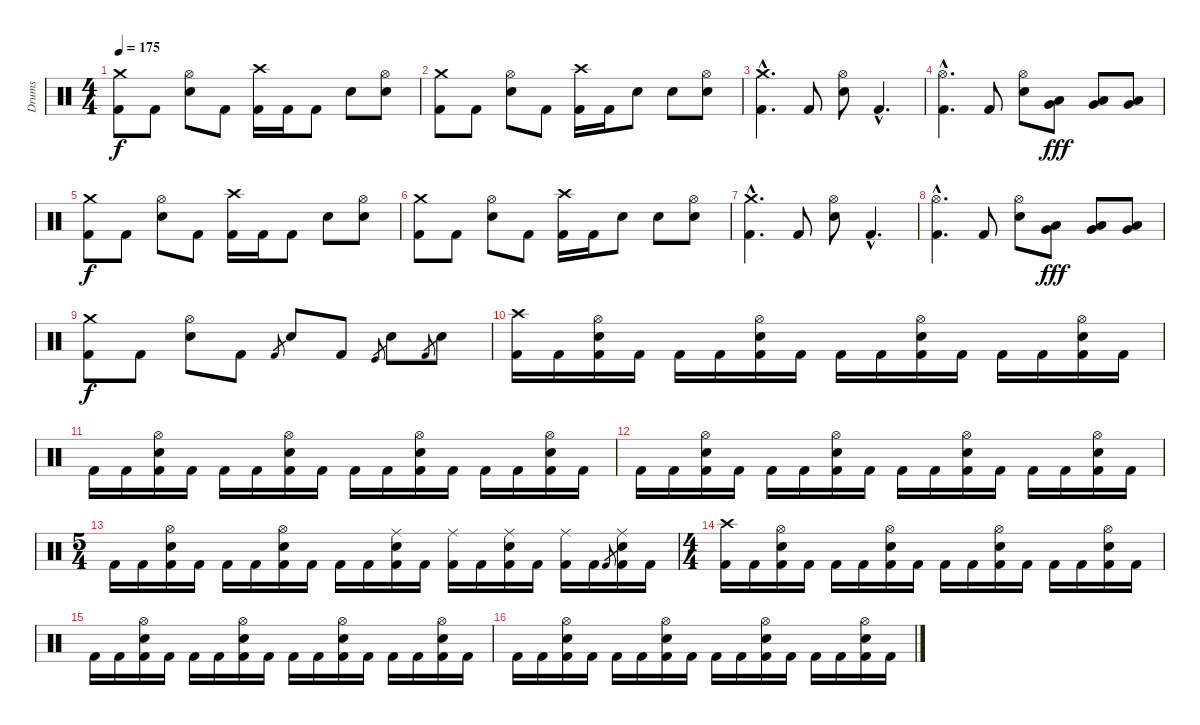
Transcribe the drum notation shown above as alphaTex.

\track ("Drums" "Drums") {instrument percussion}
\staff {score}
\articulation defaults
\ts (4 4)
\tempo 175
\clef neutral
\ks c
("Kick (hit) 2" "Crash medium (hit)").8{dy f} "Kick (hit) 2".8 ("Electric Snare (hit)" "Hi-Hat (open)").8 "Kick (hit) 2".8 ("Kick (hit) 2" "Crash high (hit)").16 "Kick (hit) 2".16 "Kick (hit) 2".8 "Electric Snare (hit)".8 ("Electric Snare (hit)" "Hi-Hat (open)").8 |
("Kick (hit) 2" "Crash medium (hit)").8 "Kick (hit) 2".8 ("Electric Snare (hit)" "Hi-Hat (open)").8 "Kick (hit) 2".8 ("Kick (hit) 2" "Crash high (hit)").16 "Kick (hit) 2".16 "Electric Snare (hit)".8 "Snare (hit) 2".8 ("Snare (hit) 2" "Hi-Hat (open)").8 |
("Kick (hit) 2"{hac} "Crash medium (hit)"{hac}).4{d} "Kick (hit) 2".8 ("Electric Snare (hit)" "Hi-Hat (open)").8 "Kick (hit) 2"{hac}.4{d} |
("Kick (hit) 2"{hac} "Hi-Hat (open)"{hac}).4{d} "Kick (hit) 2".8 ("Electric Snare (hit)" "Hi-Hat (open)").8 ("Low Tom (hit)" "Very Low Tom (hit)").8{dy fff} ("Low Tom (hit)" "Very Low Tom (hit)").8 ("Low Tom (hit)" "Very Low Tom (hit)").8 |
("Kick (hit) 2" "Crash medium (hit)").8{dy f} "Kick (hit) 2".8 ("Electric Snare (hit)" "Hi-Hat (open)").8 "Kick (hit) 2".8 ("Kick (hit) 2" "Crash high (hit)").16 "Kick (hit) 2".16 "Kick (hit) 2".8 "Electric Snare (hit)".8 ("Electric Snare (hit)" "Hi-Hat (open)").8 |
("Kick (hit) 2" "Crash medium (hit)").8 "Kick (hit) 2".8 ("Electric Snare (hit)" "Hi-Hat (open)").8 "Kick (hit) 2".8 ("Kick (hit) 2" "Crash high (hit)").16 "Kick (hit) 2".16 "Electric Snare (hit)".8 "Snare (hit) 2".8 ("Snare (hit) 2" "Hi-Hat (open)").8 |
("Kick (hit) 2"{hac} "Crash medium (hit)"{hac}).4{d} "Kick (hit) 2".8 ("Electric Snare (hit)" "Hi-Hat (open)").8 "Kick (hit) 2"{hac}.4{d} |
("Kick (hit) 2"{hac} "Hi-Hat (open)"{hac}).4{d} "Kick (hit) 2".8 ("Electric Snare (hit)" "Hi-Hat (open)").8 ("Low Tom (hit)" "Very Low Tom (hit)").8{dy fff} ("Low Tom (hit)" "Very Low Tom (hit)").8 ("Low Tom (hit)" "Very Low Tom (hit)").8 |
("Kick (hit) 2" "Crash medium (hit)").8{dy f} "Kick (hit) 2".8 ("Electric Snare (hit)" "Hi-Hat (open)").8 "Kick (hit) 2".8 "Kick (hit) 2".8{gr} "Electric Snare (hit)".8 "Kick (hit) 2".8 "Kick (hit)".8{gr} "Snare (hit) 2".8 "Kick (hit) 2".8{gr} "Electric Snare (hit)".8 |
("Crash high (hit)" "Kick (hit) 2").16 "Kick (hit) 2".16 ("Hi-Hat (open)" "Electric Snare (hit)" "Kick (hit) 2").16 "Kick (hit) 2".16 "Kick (hit) 2".16 "Kick (hit) 2".16 ("Hi-Hat (open)" "Electric Snare (hit)" "Kick (hit) 2").16 "Kick (hit) 2".16 "Kick (hit) 2".16 "Kick (hit) 2".16 ("Hi-Hat (open)" "Electric Snare (hit)" "Kick (hit) 2").16 "Kick (hit) 2".16 "Kick (hit) 2".16 "Kick (hit) 2".16 ("Hi-Hat (open)" "Electric Snare (hit)" "Kick (hit) 2").16 "Kick (hit) 2".16 |
"Kick (hit) 2".16 "Kick (hit) 2".16 ("Hi-Hat (open)" "Electric Snare (hit)" "Kick (hit) 2").16 "Kick (hit) 2".16 "Kick (hit) 2".16 "Kick (hit) 2".16 ("Hi-Hat (open)" "Electric Snare (hit)" "Kick (hit) 2").16 "Kick (hit) 2".16 "Kick (hit) 2".16 "Kick (hit) 2".16 ("Hi-Hat (open)" "Electric Snare (hit)" "Kick (hit) 2").16 "Kick (hit) 2".16 "Kick (hit) 2".16 "Kick (hit) 2".16 ("Hi-Hat (open)" "Electric Snare (hit)" "Kick (hit) 2").16 "Kick (hit) 2".16 |
"Kick (hit) 2".16 "Kick (hit) 2".16 ("Hi-Hat (open)" "Electric Snare (hit)" "Kick (hit) 2").16 "Kick (hit) 2".16 "Kick (hit) 2".16 "Kick (hit) 2".16 ("Hi-Hat (open)" "Electric Snare (hit)" "Kick (hit) 2").16 "Kick (hit) 2".16 "Kick (hit) 2".16 "Kick (hit) 2".16 ("Hi-Hat (open)" "Electric Snare (hit)" "Kick (hit) 2").16 "Kick (hit) 2".16 "Kick (hit) 2".16 "Kick (hit) 2".16 ("Hi-Hat (open)" "Electric Snare (hit)" "Kick (hit) 2").16 "Kick (hit) 2".16 |
\ts (5 4)
"Kick (hit) 2".16 "Kick (hit) 2".16 ("Hi-Hat (open)" "Electric Snare (hit)" "Kick (hit) 2").16 "Kick (hit) 2".16 "Kick (hit) 2".16 "Kick (hit) 2".16 ("Hi-Hat (open)" "Electric Snare (hit)" "Kick (hit) 2").16 "Kick (hit) 2".16 "Kick (hit) 2".16 "Kick (hit) 2".16 ("Ride (middle)" "Electric Snare (hit)" "Kick (hit) 2").16 "Kick (hit) 2".16 ("Ride (middle)" "Kick (hit) 2").16 "Kick (hit) 2".16 ("Ride (middle)" "Electric Snare (hit)" "Kick (hit) 2").16 "Kick (hit) 2".16 ("Ride (middle)" "Kick (hit) 2").16 "Kick (hit) 2".16 "Kick (hit) 2".8{gr} ("Ride (middle)" "Electric Snare (hit)" "Kick (hit) 2").16 "Kick (hit) 2".16 |
\ts (4 4)
("Crash high (hit)" "Kick (hit) 2").16 "Kick (hit) 2".16 ("Hi-Hat (open)" "Electric Snare (hit)" "Kick (hit) 2").16 "Kick (hit) 2".16 "Kick (hit) 2".16 "Kick (hit) 2".16 ("Hi-Hat (open)" "Electric Snare (hit)" "Kick (hit) 2").16 "Kick (hit) 2".16 "Kick (hit) 2".16 "Kick (hit) 2".16 ("Hi-Hat (open)" "Electric Snare (hit)" "Kick (hit) 2").16 "Kick (hit) 2".16 "Kick (hit) 2".16 "Kick (hit) 2".16 ("Hi-Hat (open)" "Electric Snare (hit)" "Kick (hit) 2").16 "Kick (hit) 2".16 |
"Kick (hit) 2".16 "Kick (hit) 2".16 ("Hi-Hat (open)" "Electric Snare (hit)" "Kick (hit) 2").16 "Kick (hit) 2".16 "Kick (hit) 2".16 "Kick (hit) 2".16 ("Hi-Hat (open)" "Electric Snare (hit)" "Kick (hit) 2").16 "Kick (hit) 2".16 "Kick (hit) 2".16 "Kick (hit) 2".16 ("Hi-Hat (open)" "Electric Snare (hit)" "Kick (hit) 2").16 "Kick (hit) 2".16 "Kick (hit) 2".16 "Kick (hit) 2".16 ("Hi-Hat (open)" "Electric Snare (hit)" "Kick (hit) 2").16 "Kick (hit) 2".16 |
"Kick (hit) 2".16 "Kick (hit) 2".16 ("Hi-Hat (open)" "Electric Snare (hit)" "Kick (hit) 2").16 "Kick (hit) 2".16 "Kick (hit) 2".16 "Kick (hit) 2".16 ("Hi-Hat (open)" "Electric Snare (hit)" "Kick (hit) 2").16 "Kick (hit) 2".16 "Kick (hit) 2".16 "Kick (hit) 2".16 ("Hi-Hat (open)" "Electric Snare (hit)" "Kick (hit) 2").16 "Kick (hit) 2".16 "Kick (hit) 2".16 "Kick (hit) 2".16 ("Hi-Hat (open)" "Electric Snare (hit)" "Kick (hit) 2").16 "Kick (hit) 2".16
